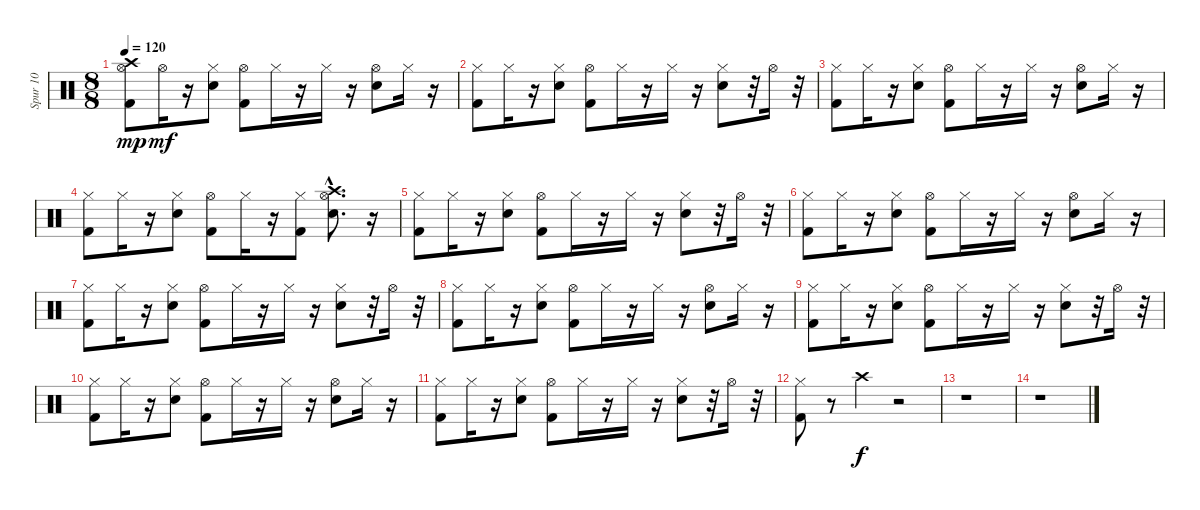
\track ("Spur 10" "Spur 10") {instrument percussion}
\staff {score}
\articulation defaults
\ts (8 8)
\tempo 120
\clef neutral
\ks c
("Hi-Hat (open)" "Kick (hit) 2" "Crash high (hit)").8{dy mp} "Hi-Hat (open)".16{dy mf} r.16 ("Hi-Hat (closed)" "Metronome (bell)").8 ("Kick (hit) 2" "Hi-Hat (open)").8 "Hi-Hat (closed)".16 r.16 "Hi-Hat (closed)".16 r.16 ("Hi-Hat (open)" "Metronome (bell)").8 "Hi-Hat (closed)".16 r.16 |
("Hi-Hat (closed)" "Kick (hit) 2").8 "Hi-Hat (closed)".16 r.16 ("Hi-Hat (closed)" "Metronome (bell)").8 ("Kick (hit) 2" "Hi-Hat (open)").8 "Hi-Hat (closed)".16 r.16 "Hi-Hat (closed)".16 r.16 ("Hi-Hat (closed)" "Metronome (bell)").8 r.32 "Hi-Hat (open)".16 r.32 |
("Hi-Hat (closed)" "Kick (hit) 2").8 "Hi-Hat (closed)".16 r.16 ("Hi-Hat (closed)" "Metronome (bell)").8 ("Kick (hit) 2" "Hi-Hat (open)").8 "Hi-Hat (closed)".16 r.16 "Hi-Hat (closed)".16 r.16 ("Hi-Hat (open)" "Metronome (bell)").8 "Hi-Hat (closed)".16 r.16 |
("Hi-Hat (closed)" "Kick (hit) 2").8 "Hi-Hat (closed)".16 r.16 ("Hi-Hat (closed)" "Metronome (bell)").8 ("Kick (hit) 2" "Hi-Hat (open)").8 "Hi-Hat (closed)".16 r.16 ("Hi-Hat (closed)" "Kick (hit) 2").8 ("Crash high (hit)"{hac} "Hi-Hat (open)" "Metronome (bell)").8{d} r.16 |
("Hi-Hat (closed)" "Kick (hit) 2").8 "Hi-Hat (closed)".16 r.16 ("Hi-Hat (closed)" "Metronome (bell)").8 ("Kick (hit) 2" "Hi-Hat (open)").8 "Hi-Hat (closed)".16 r.16 "Hi-Hat (closed)".16 r.16 ("Hi-Hat (closed)" "Metronome (bell)").8 r.32 "Hi-Hat (open)".16 r.32 |
("Hi-Hat (closed)" "Kick (hit) 2").8 "Hi-Hat (closed)".16 r.16 ("Hi-Hat (closed)" "Metronome (bell)").8 ("Kick (hit) 2" "Hi-Hat (open)").8 "Hi-Hat (closed)".16 r.16 "Hi-Hat (closed)".16 r.16 ("Hi-Hat (open)" "Metronome (bell)").8 "Hi-Hat (closed)".16 r.16 |
("Hi-Hat (closed)" "Kick (hit) 2").8 "Hi-Hat (closed)".16 r.16 ("Hi-Hat (closed)" "Metronome (bell)").8 ("Kick (hit) 2" "Hi-Hat (open)").8 "Hi-Hat (closed)".16 r.16 "Hi-Hat (closed)".16 r.16 ("Hi-Hat (closed)" "Metronome (bell)").8 r.32 "Hi-Hat (open)".16 r.32 |
("Hi-Hat (closed)" "Kick (hit) 2").8 "Hi-Hat (closed)".16 r.16 ("Hi-Hat (closed)" "Metronome (bell)").8 ("Kick (hit) 2" "Hi-Hat (open)").8 "Hi-Hat (closed)".16 r.16 "Hi-Hat (closed)".16 r.16 ("Hi-Hat (open)" "Metronome (bell)").8 "Hi-Hat (closed)".16 r.16 |
("Hi-Hat (closed)" "Kick (hit) 2").8 "Hi-Hat (closed)".16 r.16 ("Hi-Hat (closed)" "Metronome (bell)").8 ("Kick (hit) 2" "Hi-Hat (open)").8 "Hi-Hat (closed)".16 r.16 "Hi-Hat (closed)".16 r.16 ("Hi-Hat (closed)" "Metronome (bell)").8 r.32 "Hi-Hat (open)".16 r.32 |
("Hi-Hat (closed)" "Kick (hit) 2").8 "Hi-Hat (closed)".16 r.16 ("Hi-Hat (closed)" "Metronome (bell)").8 ("Kick (hit) 2" "Hi-Hat (open)").8 "Hi-Hat (closed)".16 r.16 "Hi-Hat (closed)".16 r.16 ("Hi-Hat (open)" "Metronome (bell)").8 "Hi-Hat (closed)".16 r.16 |
("Hi-Hat (closed)" "Kick (hit) 2").8 "Hi-Hat (closed)".16 r.16 ("Hi-Hat (closed)" "Metronome (bell)").8 ("Kick (hit) 2" "Hi-Hat (open)").8 "Hi-Hat (closed)".16 r.16 "Hi-Hat (closed)".16 r.16 ("Hi-Hat (closed)" "Metronome (bell)").8 r.32 "Hi-Hat (open)".16 r.32 |
("Hi-Hat (closed)" "Kick (hit) 2").8 r.8 "Crash high (hit)".4{dy f} r.2 |
r.1 |
r.1
